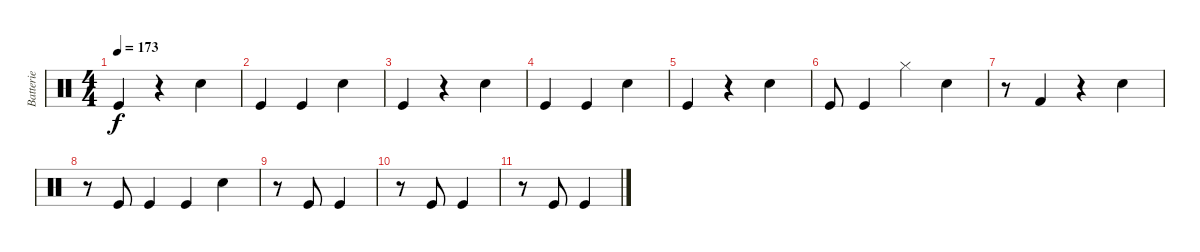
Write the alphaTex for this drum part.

\track ("Batterie" "Batterie") {instrument percussion}
\staff {score}
\articulation defaults
\ts (4 4)
\tempo 173
\clef neutral
\ks c "Kick (hit)".4{dy f}
r.4 "Electric Snare (hit)".4 |
"Kick (hit)".4 "Kick (hit)".4 "Electric Snare (hit)".4 |
"Kick (hit)".4 r.4 "Electric Snare (hit)".4 |
"Kick (hit)".4 "Kick (hit)".4 "Electric Snare (hit)".4 |
"Kick (hit)".4 r.4 "Electric Snare (hit)".4 |
"Kick (hit)".8 "Kick (hit)".4 "Hi-Hat (closed)".4 "Electric Snare (hit)".4 |
r.8{volume 11} "Kick (hit) 2".4 r.4 "Electric Snare (hit)".4 |
r.8{volume 8} "Kick (hit)".8 "Kick (hit)".4 "Kick (hit)".4 "Electric Snare (hit)".4 |
r.8{volume 7} "Kick (hit)".8 "Kick (hit)".4 |
r.8{volume 5} "Kick (hit)".8 "Kick (hit)".4 |
r.8{volume 11} "Kick (hit)".8 "Kick (hit)".4
